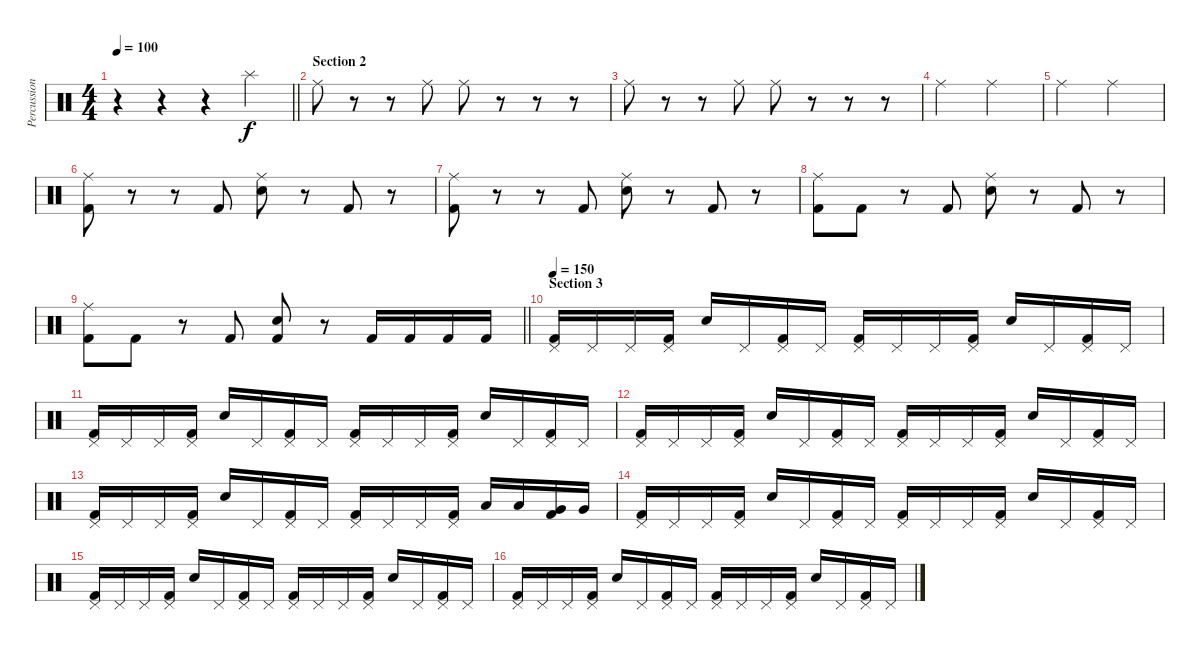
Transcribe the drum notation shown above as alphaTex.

\track ("Percussion" "Percussion") {instrument percussion}
\staff {score}
\articulation defaults
\ts (4 4)
\tempo 100
\clef neutral
\barLineRight lightlight
\ks c
r.4{dy f} r.4 r.4 "Splash (hit)".4 |
\section ("" "Section 2")
"Ride (middle)".8 r.8 r.8 "Ride (middle)".8 "Ride (middle)".8 r.8 r.8 r.8 |
"Ride (middle)".8 r.8 r.8 "Ride (middle)".8 "Ride (middle)".8 r.8 r.8 r.8 |
"Ride (middle)".2 "Ride (middle)".2 |
"Ride (middle)".2 "Ride (middle)".2 |
("Ride (middle)" "Kick (hit) 2").8 r.8 r.8 "Kick (hit) 2".8 ("Ride (middle)" "Snare (hit) 2").8 r.8 "Kick (hit) 2".8 r.8 |
("Ride (middle)" "Kick (hit) 2").8 r.8 r.8 "Kick (hit) 2".8 ("Ride (middle)" "Snare (hit) 2").8 r.8 "Kick (hit) 2".8 r.8 |
("Ride (middle)" "Kick (hit) 2").8 "Kick (hit) 2".8 r.8 "Kick (hit) 2".8 ("Ride (middle)" "Snare (hit) 2").8 r.8 "Kick (hit) 2".8 r.8 |
\barLineRight lightlight
("Ride (middle)" "Kick (hit) 2").8 "Kick (hit) 2".8 r.8 "Kick (hit) 2".8 ("Snare (hit) 2" "Kick (hit) 2").8 r.8 "Kick (hit) 2".16 "Kick (hit) 2".16 "Kick (hit) 2".16 "Kick (hit) 2".16 |
\section ("" "Section 3")
\tempo 150
("Pedal Hi-Hat (hit)" "Kick (hit) 2").16 "Pedal Hi-Hat (hit)".16 "Pedal Hi-Hat (hit)".16 ("Pedal Hi-Hat (hit)" "Kick (hit) 2").16 "Snare (hit) 2".16 "Pedal Hi-Hat (hit)".16 ("Pedal Hi-Hat (hit)" "Kick (hit) 2").16 "Pedal Hi-Hat (hit)".16 ("Pedal Hi-Hat (hit)" "Kick (hit) 2").16 "Pedal Hi-Hat (hit)".16 "Pedal Hi-Hat (hit)".16 ("Pedal Hi-Hat (hit)" "Kick (hit) 2").16 "Snare (hit) 2".16 "Pedal Hi-Hat (hit)".16 ("Pedal Hi-Hat (hit)" "Kick (hit) 2").16 "Pedal Hi-Hat (hit)".16 |
("Pedal Hi-Hat (hit)" "Kick (hit) 2").16 "Pedal Hi-Hat (hit)".16 "Pedal Hi-Hat (hit)".16 ("Pedal Hi-Hat (hit)" "Kick (hit) 2").16 "Snare (hit) 2".16 "Pedal Hi-Hat (hit)".16 ("Pedal Hi-Hat (hit)" "Kick (hit) 2").16 "Pedal Hi-Hat (hit)".16 ("Pedal Hi-Hat (hit)" "Kick (hit) 2").16 "Pedal Hi-Hat (hit)".16 "Pedal Hi-Hat (hit)".16 ("Pedal Hi-Hat (hit)" "Kick (hit) 2").16 "Snare (hit) 2".16 "Pedal Hi-Hat (hit)".16 ("Pedal Hi-Hat (hit)" "Kick (hit) 2").16 "Pedal Hi-Hat (hit)".16 |
("Pedal Hi-Hat (hit)" "Kick (hit) 2").16 "Pedal Hi-Hat (hit)".16 "Pedal Hi-Hat (hit)".16 ("Pedal Hi-Hat (hit)" "Kick (hit) 2").16 "Snare (hit) 2".16 "Pedal Hi-Hat (hit)".16 ("Pedal Hi-Hat (hit)" "Kick (hit) 2").16 "Pedal Hi-Hat (hit)".16 ("Pedal Hi-Hat (hit)" "Kick (hit) 2").16 "Pedal Hi-Hat (hit)".16 "Pedal Hi-Hat (hit)".16 ("Pedal Hi-Hat (hit)" "Kick (hit) 2").16 "Snare (hit) 2".16 "Pedal Hi-Hat (hit)".16 ("Pedal Hi-Hat (hit)" "Kick (hit) 2").16 "Pedal Hi-Hat (hit)".16 |
("Pedal Hi-Hat (hit)" "Kick (hit) 2").16 "Pedal Hi-Hat (hit)".16 "Pedal Hi-Hat (hit)".16 ("Pedal Hi-Hat (hit)" "Kick (hit) 2").16 "Snare (hit) 2".16 "Pedal Hi-Hat (hit)".16 ("Pedal Hi-Hat (hit)" "Kick (hit) 2").16 "Pedal Hi-Hat (hit)".16 ("Pedal Hi-Hat (hit)" "Kick (hit) 2").16 "Pedal Hi-Hat (hit)".16 "Pedal Hi-Hat (hit)".16 ("Pedal Hi-Hat (hit)" "Kick (hit) 2").16 "Low Tom (hit)".16 "Low Tom (hit)".16 ("Very Low Tom (hit)" "Kick (hit) 2").16 "Very Low Tom (hit)".16 |
("Pedal Hi-Hat (hit)" "Kick (hit) 2").16 "Pedal Hi-Hat (hit)".16 "Pedal Hi-Hat (hit)".16 ("Pedal Hi-Hat (hit)" "Kick (hit) 2").16 "Snare (hit) 2".16 "Pedal Hi-Hat (hit)".16 ("Pedal Hi-Hat (hit)" "Kick (hit) 2").16 "Pedal Hi-Hat (hit)".16 ("Pedal Hi-Hat (hit)" "Kick (hit) 2").16 "Pedal Hi-Hat (hit)".16 "Pedal Hi-Hat (hit)".16 ("Pedal Hi-Hat (hit)" "Kick (hit) 2").16 "Snare (hit) 2".16 "Pedal Hi-Hat (hit)".16 ("Pedal Hi-Hat (hit)" "Kick (hit) 2").16 "Pedal Hi-Hat (hit)".16 |
("Pedal Hi-Hat (hit)" "Kick (hit) 2").16 "Pedal Hi-Hat (hit)".16 "Pedal Hi-Hat (hit)".16 ("Pedal Hi-Hat (hit)" "Kick (hit) 2").16 "Snare (hit) 2".16 "Pedal Hi-Hat (hit)".16 ("Pedal Hi-Hat (hit)" "Kick (hit) 2").16 "Pedal Hi-Hat (hit)".16 ("Pedal Hi-Hat (hit)" "Kick (hit) 2").16 "Pedal Hi-Hat (hit)".16 "Pedal Hi-Hat (hit)".16 ("Pedal Hi-Hat (hit)" "Kick (hit) 2").16 "Snare (hit) 2".16 "Pedal Hi-Hat (hit)".16 ("Pedal Hi-Hat (hit)" "Kick (hit) 2").16 "Pedal Hi-Hat (hit)".16 |
("Pedal Hi-Hat (hit)" "Kick (hit) 2").16 "Pedal Hi-Hat (hit)".16 "Pedal Hi-Hat (hit)".16 ("Pedal Hi-Hat (hit)" "Kick (hit) 2").16 "Snare (hit) 2".16 "Pedal Hi-Hat (hit)".16 ("Pedal Hi-Hat (hit)" "Kick (hit) 2").16 "Pedal Hi-Hat (hit)".16 ("Pedal Hi-Hat (hit)" "Kick (hit) 2").16 "Pedal Hi-Hat (hit)".16 "Pedal Hi-Hat (hit)".16 ("Pedal Hi-Hat (hit)" "Kick (hit) 2").16 "Snare (hit) 2".16 "Pedal Hi-Hat (hit)".16 ("Pedal Hi-Hat (hit)" "Kick (hit) 2").16 "Pedal Hi-Hat (hit)".16
